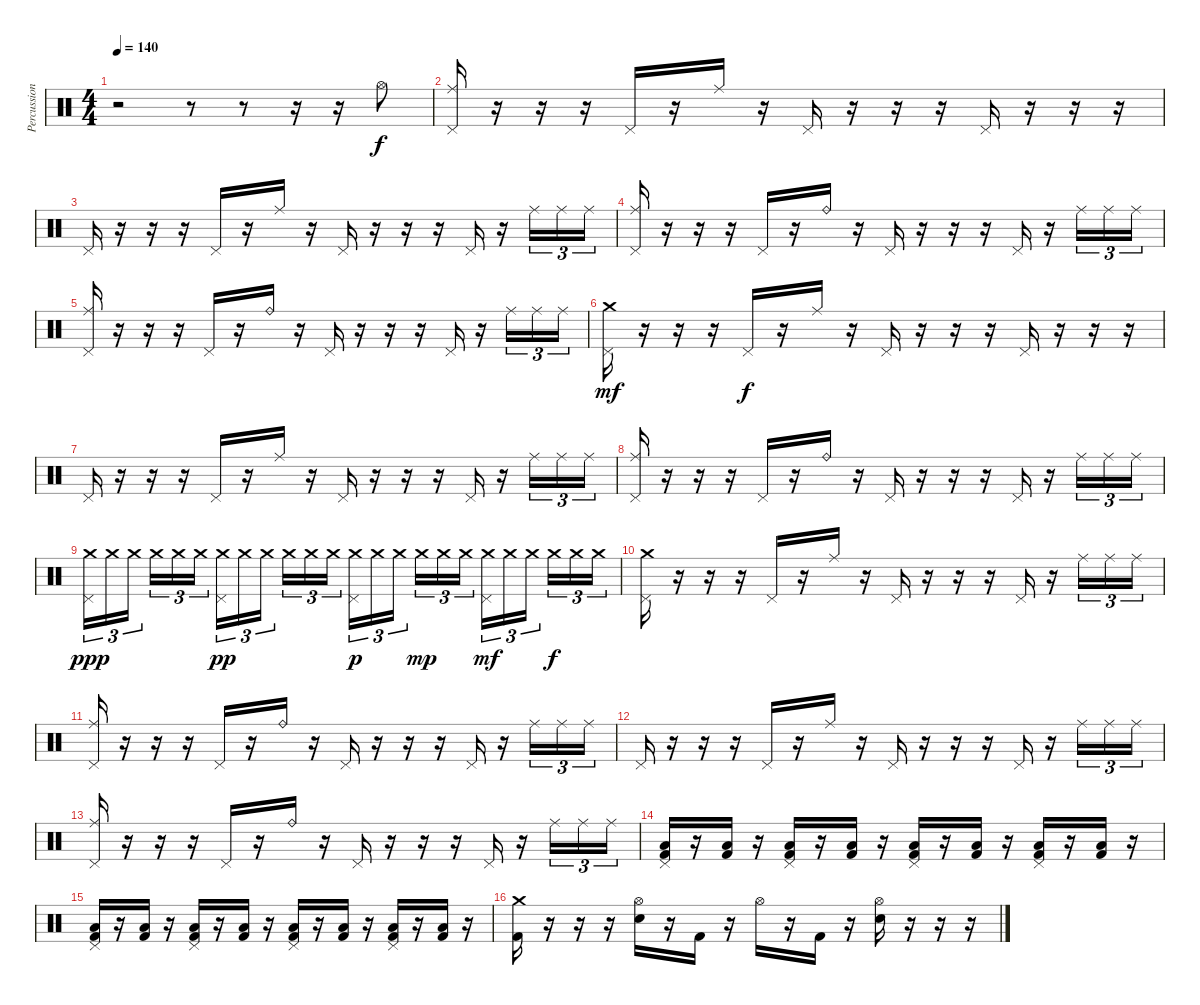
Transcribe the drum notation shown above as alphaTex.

\track ("Percussion" "Percussion") {instrument percussion}
\staff {score}
\articulation defaults
\ts (4 4)
\tempo 140
\clef neutral
\ks c
r.2{dy f} r.8 r.8 r.16 r.16 "Hi-Hat (open)".8 |
("Ride (middle)" "Pedal Hi-Hat (hit)").16 r.16 r.16 r.16 "Pedal Hi-Hat (hit)".16 r.16 "Ride (middle)".16 r.16 "Pedal Hi-Hat (hit)".16 r.16 r.16 r.16 "Pedal Hi-Hat (hit)".16 r.16 r.16 r.16 |
"Pedal Hi-Hat (hit)".16 r.16 r.16 r.16 "Pedal Hi-Hat (hit)".16 r.16 "Ride (middle)".16 r.16 "Pedal Hi-Hat (hit)".16 r.16 r.16 r.16 "Pedal Hi-Hat (hit)".16 r.16 "Ride (middle)".16{tu (3 2)} "Ride (middle)".16{tu (3 2)} "Ride (middle)".16{tu (3 2)} |
("Ride (middle)" "Pedal Hi-Hat (hit)").16 r.16 r.16 r.16 "Pedal Hi-Hat (hit)".16 r.16 "Ride (bell)".16 r.16 "Pedal Hi-Hat (hit)".16 r.16 r.16 r.16 "Pedal Hi-Hat (hit)".16 r.16 "Ride (middle)".16{tu (3 2)} "Ride (middle)".16{tu (3 2)} "Ride (middle)".16{tu (3 2)} |
("Ride (middle)" "Pedal Hi-Hat (hit)").16 r.16 r.16 r.16 "Pedal Hi-Hat (hit)".16 r.16 "Ride (bell)".16 r.16 "Pedal Hi-Hat (hit)".16 r.16 r.16 r.16 "Pedal Hi-Hat (hit)".16 r.16 "Ride (middle)".16{tu (3 2)} "Ride (middle)".16{tu (3 2)} "Ride (middle)".16{tu (3 2)} |
("Crash medium (hit)" "Pedal Hi-Hat (hit)").16{dy mf} r.16 r.16 r.16 "Pedal Hi-Hat (hit)".16{dy f} r.16 "Ride (middle)".16 r.16 "Pedal Hi-Hat (hit)".16 r.16 r.16 r.16 "Pedal Hi-Hat (hit)".16 r.16 r.16 r.16 |
"Pedal Hi-Hat (hit)".16 r.16 r.16 r.16 "Pedal Hi-Hat (hit)".16 r.16 "Ride (middle)".16 r.16 "Pedal Hi-Hat (hit)".16 r.16 r.16 r.16 "Pedal Hi-Hat (hit)".16 r.16 "Ride (middle)".16{tu (3 2)} "Ride (middle)".16{tu (3 2)} "Ride (middle)".16{tu (3 2)} |
("Ride (middle)" "Pedal Hi-Hat (hit)").16 r.16 r.16 r.16 "Pedal Hi-Hat (hit)".16 r.16 "Ride (bell)".16 r.16 "Pedal Hi-Hat (hit)".16 r.16 r.16 r.16 "Pedal Hi-Hat (hit)".16 r.16 "Ride (middle)".16{tu (3 2)} "Ride (middle)".16{tu (3 2)} "Ride (middle)".16{tu (3 2)} |
("Crash medium (hit)" "Pedal Hi-Hat (hit)").16{tu (3 2) dy ppp} "Crash medium (hit)".16{tu (3 2)} "Crash medium (hit)".16{tu (3 2)} "Crash medium (hit)".16{tu (3 2)} "Crash medium (hit)".16{tu (3 2)} "Crash medium (hit)".16{tu (3 2)} ("Crash medium (hit)" "Pedal Hi-Hat (hit)").16{tu (3 2) dy pp} "Crash medium (hit)".16{tu (3 2)} "Crash medium (hit)".16{tu (3 2)} "Crash medium (hit)".16{tu (3 2)} "Crash medium (hit)".16{tu (3 2)} "Crash medium (hit)".16{tu (3 2)} ("Crash medium (hit)" "Pedal Hi-Hat (hit)").16{tu (3 2) dy p} "Crash medium (hit)".16{tu (3 2)} "Crash medium (hit)".16{tu (3 2)} "Crash medium (hit)".16{tu (3 2) dy mp} "Crash medium (hit)".16{tu (3 2)} "Crash medium (hit)".16{tu (3 2)} ("Crash medium (hit)" "Pedal Hi-Hat (hit)").16{tu (3 2) dy mf} "Crash medium (hit)".16{tu (3 2)} "Crash medium (hit)".16{tu (3 2)} "Crash medium (hit)".16{tu (3 2) dy f} "Crash medium (hit)".16{tu (3 2)} "Crash medium (hit)".16{tu (3 2)} |
("Crash medium (hit)" "Pedal Hi-Hat (hit)").16 r.16 r.16 r.16 "Pedal Hi-Hat (hit)".16 r.16 "Ride (middle)".16 r.16 "Pedal Hi-Hat (hit)".16 r.16 r.16 r.16 "Pedal Hi-Hat (hit)".16 r.16 "Ride (middle)".16{tu (3 2)} "Ride (middle)".16{tu (3 2)} "Ride (middle)".16{tu (3 2)} |
("Ride (middle)" "Pedal Hi-Hat (hit)").16 r.16 r.16 r.16 "Pedal Hi-Hat (hit)".16 r.16 "Ride (bell)".16 r.16 "Pedal Hi-Hat (hit)".16 r.16 r.16 r.16 "Pedal Hi-Hat (hit)".16 r.16 "Ride (middle)".16{tu (3 2)} "Ride (middle)".16{tu (3 2)} "Ride (middle)".16{tu (3 2)} |
"Pedal Hi-Hat (hit)".16 r.16 r.16 r.16 "Pedal Hi-Hat (hit)".16 r.16 "Ride (middle)".16 r.16 "Pedal Hi-Hat (hit)".16 r.16 r.16 r.16 "Pedal Hi-Hat (hit)".16 r.16 "Ride (middle)".16{tu (3 2)} "Ride (middle)".16{tu (3 2)} "Ride (middle)".16{tu (3 2)} |
("Ride (middle)" "Pedal Hi-Hat (hit)").16 r.16 r.16 r.16 "Pedal Hi-Hat (hit)".16 r.16 "Ride (bell)".16 r.16 "Pedal Hi-Hat (hit)".16 r.16 r.16 r.16 "Pedal Hi-Hat (hit)".16 r.16 "Ride (middle)".16{tu (3 2)} "Ride (middle)".16{tu (3 2)} "Ride (middle)".16{tu (3 2)} |
("Pedal Hi-Hat (hit)" "Low Floor Tom (hit)" "Kick (hit) 2").16 r.16 ("Low Floor Tom (hit)" "Kick (hit) 2").16 r.16 ("Pedal Hi-Hat (hit)" "Low Floor Tom (hit)" "Kick (hit) 2").16 r.16 ("Low Floor Tom (hit)" "Kick (hit) 2").16 r.16 ("Pedal Hi-Hat (hit)" "Low Floor Tom (hit)" "Kick (hit) 2").16 r.16 ("Low Floor Tom (hit)" "Kick (hit) 2").16 r.16 ("Pedal Hi-Hat (hit)" "Low Floor Tom (hit)" "Kick (hit) 2").16 r.16 ("Low Floor Tom (hit)" "Kick (hit) 2").16 r.16 |
("Pedal Hi-Hat (hit)" "Low Floor Tom (hit)" "Kick (hit) 2").16 r.16 ("Low Floor Tom (hit)" "Kick (hit) 2").16 r.16 ("Pedal Hi-Hat (hit)" "Low Floor Tom (hit)" "Kick (hit) 2").16 r.16 ("Low Floor Tom (hit)" "Kick (hit) 2").16 r.16 ("Pedal Hi-Hat (hit)" "Low Floor Tom (hit)" "Kick (hit) 2").16 r.16 ("Low Floor Tom (hit)" "Kick (hit) 2").16 r.16 ("Pedal Hi-Hat (hit)" "Low Floor Tom (hit)" "Kick (hit) 2").16 r.16 ("Low Floor Tom (hit)" "Kick (hit) 2").16 r.16 |
("Crash medium (hit)" "Kick (hit) 2").16 r.16 r.16 r.16 ("Hi-Hat (open)" "Snare (hit) 2").16 r.16 "Kick (hit) 2".16 r.16 "Hi-Hat (open)".16 r.16 "Kick (hit) 2".16 r.16 ("Hi-Hat (open)" "Snare (hit) 2").16 r.16 r.16 r.16
